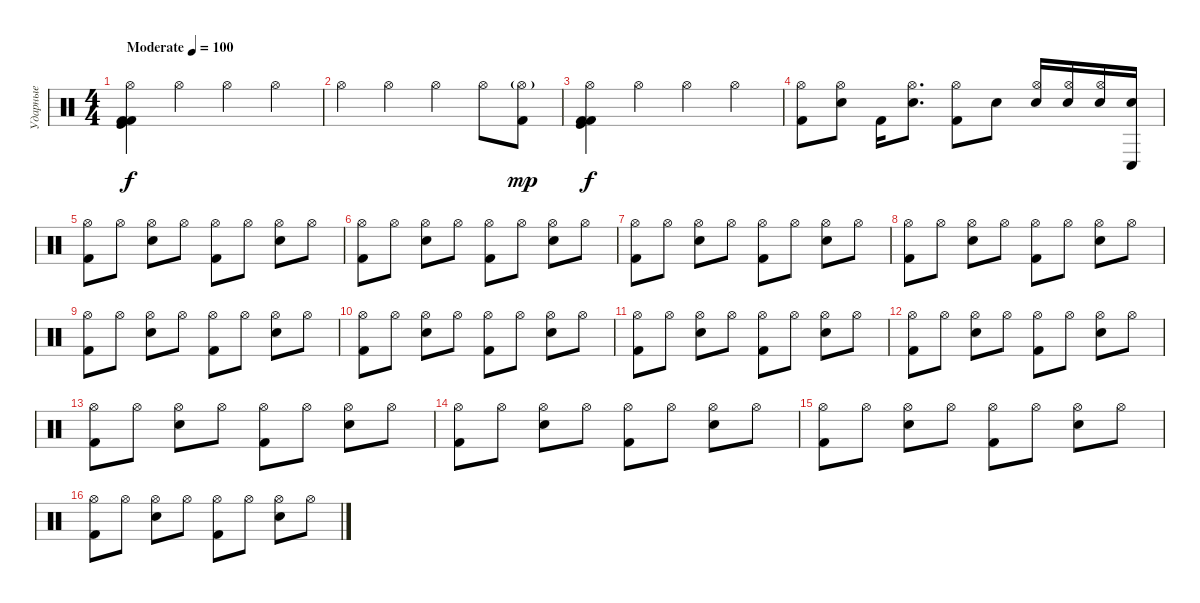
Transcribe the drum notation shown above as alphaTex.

\track ("Ударные" "Ударные") {instrument percussion}
\staff {score}
\articulation defaults
\ts (4 4)
\tempo (100 "Moderate")
\clef neutral
\ks c
("Hi-Hat (open)" "Kick (hit) 2" "Kick (hit)" "Kick (hit) 2").4{dy f} "Hi-Hat (open)".4 "Hi-Hat (open)".4 "Hi-Hat (open)".4 |
"Hi-Hat (open)".4 "Hi-Hat (open)".4 "Hi-Hat (open)".4 "Hi-Hat (open)".8 ("Hi-Hat (open)"{g} "Kick (hit) 2").8{dy mp} |
("Hi-Hat (open)" "Kick (hit) 2" "Kick (hit)" "Kick (hit) 2").4{dy f} "Hi-Hat (open)".4 "Hi-Hat (open)".4 "Hi-Hat (open)".4 |
("Hi-Hat (open)" "Kick (hit) 2").8 ("Hi-Hat (open)" "Electric Snare (hit)").8 "Kick (hit) 2".16 ("Hi-Hat (open)" "Electric Snare (hit)").8{d} ("Hi-Hat (open)" "Kick (hit) 2").8 "Electric Snare (hit)".8 ("Hi-Hat (open)" "Electric Snare (hit)").16 ("Hi-Hat (open)" "Electric Snare (hit)").16 ("Hi-Hat (open)" "Electric Snare (hit)").16 ("Conga low (hit)" "Electric Snare (hit)").16 |
("Hi-Hat (open)" "Kick (hit) 2").8 "Hi-Hat (open)".8 ("Hi-Hat (open)" "Electric Snare (hit)").8 "Hi-Hat (open)".8 ("Hi-Hat (open)" "Kick (hit) 2").8 "Hi-Hat (open)".8 ("Hi-Hat (open)" "Electric Snare (hit)").8 "Hi-Hat (open)".8 |
("Hi-Hat (open)" "Kick (hit) 2").8 "Hi-Hat (open)".8 ("Hi-Hat (open)" "Electric Snare (hit)").8 "Hi-Hat (open)".8 ("Hi-Hat (open)" "Kick (hit) 2").8 "Hi-Hat (open)".8 ("Hi-Hat (open)" "Electric Snare (hit)").8 "Hi-Hat (open)".8 |
("Hi-Hat (open)" "Kick (hit) 2").8 "Hi-Hat (open)".8 ("Hi-Hat (open)" "Electric Snare (hit)").8 "Hi-Hat (open)".8 ("Hi-Hat (open)" "Kick (hit) 2").8 "Hi-Hat (open)".8 ("Hi-Hat (open)" "Electric Snare (hit)").8 "Hi-Hat (open)".8 |
("Hi-Hat (open)" "Kick (hit) 2").8 "Hi-Hat (open)".8 ("Hi-Hat (open)" "Electric Snare (hit)").8 "Hi-Hat (open)".8 ("Hi-Hat (open)" "Kick (hit) 2").8 "Hi-Hat (open)".8 ("Hi-Hat (open)" "Electric Snare (hit)").8 "Hi-Hat (open)".8 |
("Hi-Hat (open)" "Kick (hit) 2").8 "Hi-Hat (open)".8 ("Hi-Hat (open)" "Electric Snare (hit)").8 "Hi-Hat (open)".8 ("Hi-Hat (open)" "Kick (hit) 2").8 "Hi-Hat (open)".8 ("Hi-Hat (open)" "Electric Snare (hit)").8 "Hi-Hat (open)".8 |
("Hi-Hat (open)" "Kick (hit) 2").8 "Hi-Hat (open)".8 ("Hi-Hat (open)" "Electric Snare (hit)").8 "Hi-Hat (open)".8 ("Hi-Hat (open)" "Kick (hit) 2").8 "Hi-Hat (open)".8 ("Hi-Hat (open)" "Electric Snare (hit)").8 "Hi-Hat (open)".8 |
("Hi-Hat (open)" "Kick (hit) 2").8 "Hi-Hat (open)".8 ("Hi-Hat (open)" "Electric Snare (hit)").8 "Hi-Hat (open)".8 ("Hi-Hat (open)" "Kick (hit) 2").8 "Hi-Hat (open)".8 ("Hi-Hat (open)" "Electric Snare (hit)").8 "Hi-Hat (open)".8 |
("Hi-Hat (open)" "Kick (hit) 2").8 "Hi-Hat (open)".8 ("Hi-Hat (open)" "Electric Snare (hit)").8 "Hi-Hat (open)".8 ("Hi-Hat (open)" "Kick (hit) 2").8 "Hi-Hat (open)".8 ("Hi-Hat (open)" "Electric Snare (hit)").8 "Hi-Hat (open)".8 |
("Hi-Hat (open)" "Kick (hit) 2").8 "Hi-Hat (open)".8 ("Hi-Hat (open)" "Electric Snare (hit)").8 "Hi-Hat (open)".8 ("Hi-Hat (open)" "Kick (hit) 2").8 "Hi-Hat (open)".8 ("Hi-Hat (open)" "Electric Snare (hit)").8 "Hi-Hat (open)".8 |
("Hi-Hat (open)" "Kick (hit) 2").8 "Hi-Hat (open)".8 ("Hi-Hat (open)" "Electric Snare (hit)").8 "Hi-Hat (open)".8 ("Hi-Hat (open)" "Kick (hit) 2").8 "Hi-Hat (open)".8 ("Hi-Hat (open)" "Electric Snare (hit)").8 "Hi-Hat (open)".8 |
("Hi-Hat (open)" "Kick (hit) 2").8 "Hi-Hat (open)".8 ("Hi-Hat (open)" "Electric Snare (hit)").8 "Hi-Hat (open)".8 ("Hi-Hat (open)" "Kick (hit) 2").8 "Hi-Hat (open)".8 ("Hi-Hat (open)" "Electric Snare (hit)").8 "Hi-Hat (open)".8 |
("Hi-Hat (open)" "Kick (hit) 2").8 "Hi-Hat (open)".8 ("Hi-Hat (open)" "Electric Snare (hit)").8 "Hi-Hat (open)".8 ("Hi-Hat (open)" "Kick (hit) 2").8 "Hi-Hat (open)".8 ("Hi-Hat (open)" "Electric Snare (hit)").8 "Hi-Hat (open)".8
